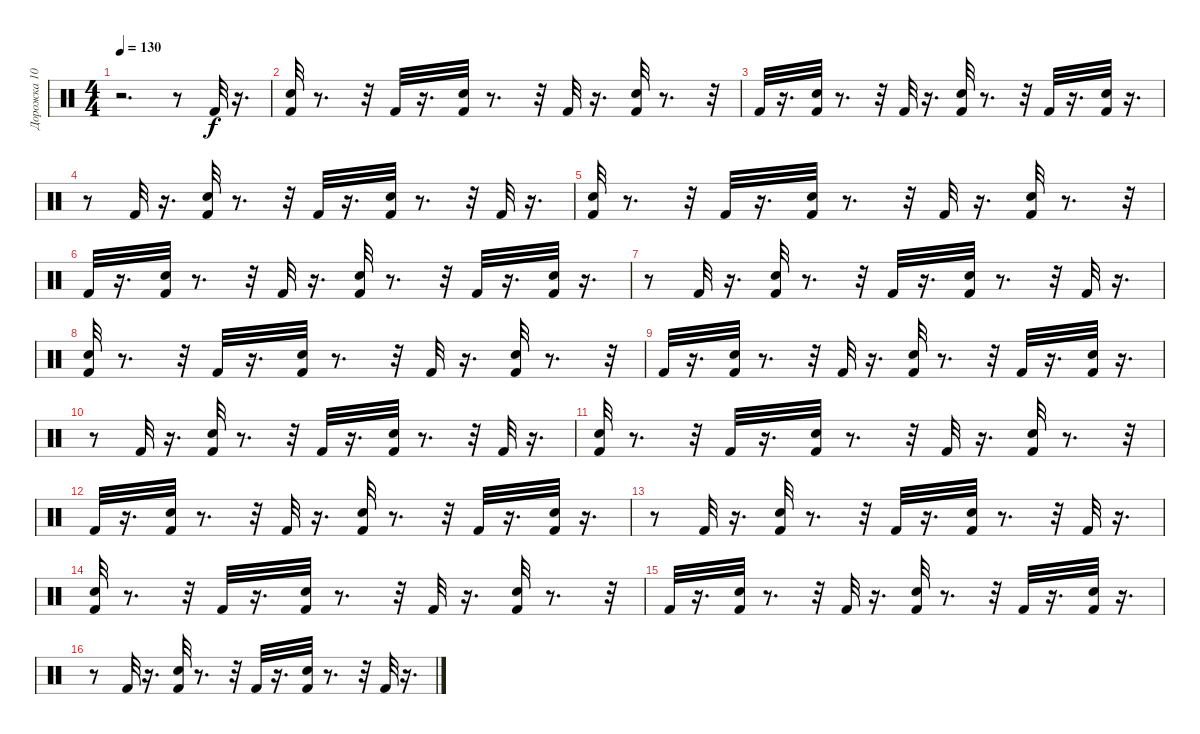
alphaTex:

\track ("Дорожка 10" "Дорожка 10") {instrument percussion}
\staff {score}
\articulation defaults
\ts (4 4)
\tempo 130
\clef neutral
\ks c
r.2{d dy f} r.8 "Kick (hit) 2".32 r.16{d} |
("Snare (hit)" "Kick (hit) 2").32 r.8{d} r.32 "Kick (hit) 2".32 r.16{d} ("Snare (hit)" "Kick (hit) 2").32 r.8{d} r.32 "Kick (hit) 2".32 r.16{d} ("Snare (hit)" "Kick (hit) 2").32 r.8{d} r.32 |
"Kick (hit) 2".32 r.16{d} ("Snare (hit)" "Kick (hit) 2").32 r.8{d} r.32 "Kick (hit) 2".32 r.16{d} ("Snare (hit)" "Kick (hit) 2").32 r.8{d} r.32 "Kick (hit) 2".32 r.16{d} ("Snare (hit)" "Kick (hit) 2").32 r.16{d} |
r.8 "Kick (hit) 2".32 r.16{d} ("Snare (hit)" "Kick (hit) 2").32 r.8{d} r.32 "Kick (hit) 2".32 r.16{d} ("Snare (hit)" "Kick (hit) 2").32 r.8{d} r.32 "Kick (hit) 2".32 r.16{d} |
("Snare (hit)" "Kick (hit) 2").32 r.8{d} r.32 "Kick (hit) 2".32 r.16{d} ("Snare (hit)" "Kick (hit) 2").32 r.8{d} r.32 "Kick (hit) 2".32 r.16{d} ("Snare (hit)" "Kick (hit) 2").32 r.8{d} r.32 |
"Kick (hit) 2".32 r.16{d} ("Snare (hit)" "Kick (hit) 2").32 r.8{d} r.32 "Kick (hit) 2".32 r.16{d} ("Snare (hit)" "Kick (hit) 2").32 r.8{d} r.32 "Kick (hit) 2".32 r.16{d} ("Snare (hit)" "Kick (hit) 2").32 r.16{d} |
r.8 "Kick (hit) 2".32 r.16{d} ("Snare (hit)" "Kick (hit) 2").32 r.8{d} r.32 "Kick (hit) 2".32 r.16{d} ("Snare (hit)" "Kick (hit) 2").32 r.8{d} r.32 "Kick (hit) 2".32 r.16{d} |
("Snare (hit)" "Kick (hit) 2").32 r.8{d} r.32 "Kick (hit) 2".32 r.16{d} ("Snare (hit)" "Kick (hit) 2").32 r.8{d} r.32 "Kick (hit) 2".32 r.16{d} ("Snare (hit)" "Kick (hit) 2").32 r.8{d} r.32 |
"Kick (hit) 2".32 r.16{d} ("Snare (hit)" "Kick (hit) 2").32 r.8{d} r.32 "Kick (hit) 2".32 r.16{d} ("Snare (hit)" "Kick (hit) 2").32 r.8{d} r.32 "Kick (hit) 2".32 r.16{d} ("Snare (hit)" "Kick (hit) 2").32 r.16{d} |
r.8 "Kick (hit) 2".32 r.16{d} ("Snare (hit)" "Kick (hit) 2").32 r.8{d} r.32 "Kick (hit) 2".32 r.16{d} ("Snare (hit)" "Kick (hit) 2").32 r.8{d} r.32 "Kick (hit) 2".32 r.16{d} |
("Snare (hit)" "Kick (hit) 2").32 r.8{d} r.32 "Kick (hit) 2".32 r.16{d} ("Snare (hit)" "Kick (hit) 2").32 r.8{d} r.32 "Kick (hit) 2".32 r.16{d} ("Snare (hit)" "Kick (hit) 2").32 r.8{d} r.32 |
"Kick (hit) 2".32 r.16{d} ("Snare (hit)" "Kick (hit) 2").32 r.8{d} r.32 "Kick (hit) 2".32 r.16{d} ("Snare (hit)" "Kick (hit) 2").32 r.8{d} r.32 "Kick (hit) 2".32 r.16{d} ("Snare (hit)" "Kick (hit) 2").32 r.16{d} |
r.8 "Kick (hit) 2".32 r.16{d} ("Snare (hit)" "Kick (hit) 2").32 r.8{d} r.32 "Kick (hit) 2".32 r.16{d} ("Snare (hit)" "Kick (hit) 2").32 r.8{d} r.32 "Kick (hit) 2".32 r.16{d} |
("Snare (hit)" "Kick (hit) 2").32 r.8{d} r.32 "Kick (hit) 2".32 r.16{d} ("Snare (hit)" "Kick (hit) 2").32 r.8{d} r.32 "Kick (hit) 2".32 r.16{d} ("Snare (hit)" "Kick (hit) 2").32 r.8{d} r.32 |
"Kick (hit) 2".32 r.16{d} ("Snare (hit)" "Kick (hit) 2").32 r.8{d} r.32 "Kick (hit) 2".32 r.16{d} ("Snare (hit)" "Kick (hit) 2").32 r.8{d} r.32 "Kick (hit) 2".32 r.16{d} ("Snare (hit)" "Kick (hit) 2").32 r.16{d} |
r.8 "Kick (hit) 2".32 r.16{d} ("Snare (hit)" "Kick (hit) 2").32 r.8{d} r.32 "Kick (hit) 2".32 r.16{d} ("Snare (hit)" "Kick (hit) 2").32 r.8{d} r.32 "Kick (hit) 2".32 r.16{d}
